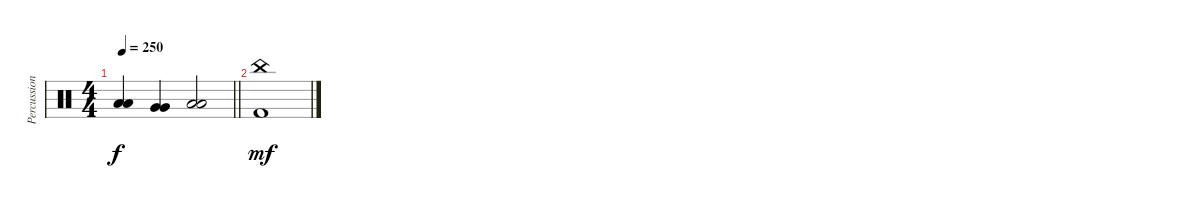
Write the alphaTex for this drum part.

\track ("Percussions" "Percussion") {instrument percussion}
\staff {score}
\articulation defaults
\ts (4 4)
\tempo 250
\clef neutral
\barLineRight lightlight
\ks c
("Low Tom (hit)" "Low Tom (hit)").4{dy f} ("Very Low Tom (hit)" "Very Low Tom (hit)").4 ("Low Floor Tom (hit)" "Low Floor Tom (hit)").2 |
("China (hit)" "Kick (hit) 2").1{dy mf}
